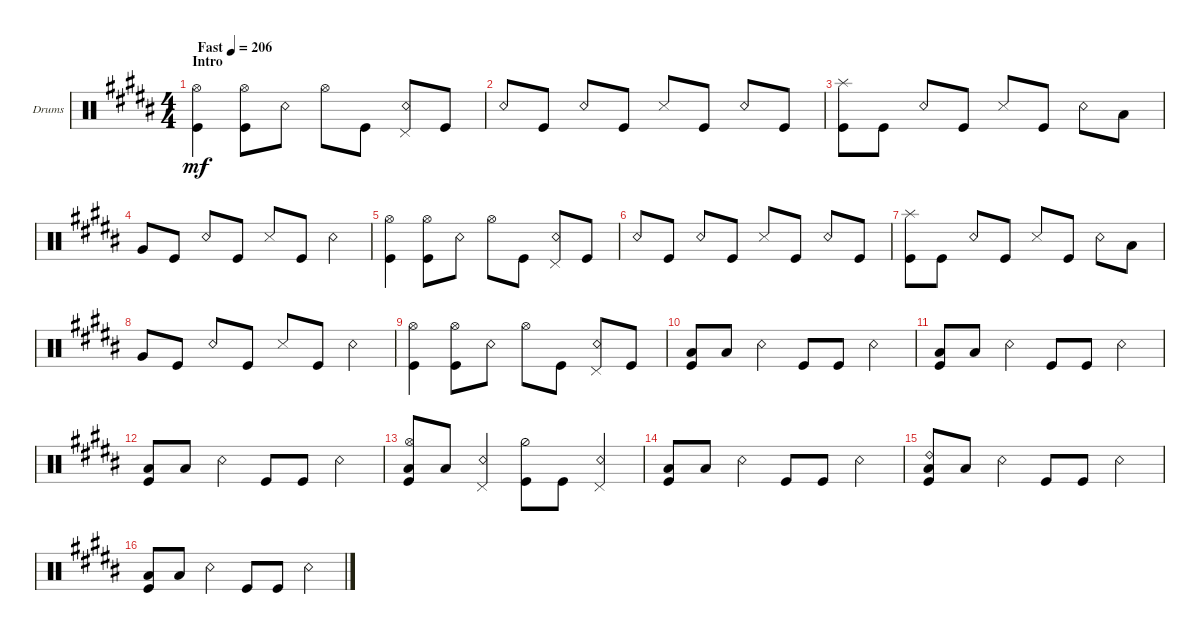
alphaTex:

\defaultSystemsLayout 4
\bracketExtendMode groupsimilarinstruments
\firstSystemTrackNameOrientation horizontal
\otherSystemsTrackNameOrientation horizontal
\track ("Drums" "Drums") {instrument percussion}
\staff {score}
\articulation defaults
\ts (4 4)
\section ("" "Intro")
\tempo (206 "Fast")
\clef neutral
\ks b
("Kick (hit)" "Hi-Hat (open)").4{dy mf} ("Kick (hit)" "Hi-Hat (open)").8 "Snare (rim shot)".8 "Hi-Hat (open)".8 "Kick (hit)".8 ("Snare (rim shot)" "Pedal Hi-Hat (hit)").8 "Kick (hit)".8 |
"Snare (rim shot)".8 "Kick (hit)".8 "Snare (rim shot)".8 "Kick (hit)".8 "Snare (side stick) 3".8 "Kick (hit)".8 "Snare (rim shot)".8 "Kick (hit)".8 |
("Kick (hit)" "Splash (hit)").8 "Kick (hit)".8 "Snare (rim shot)".8 "Kick (hit)".8 "Snare (side stick) 3".8 "Kick (hit)".8 "Snare (rim shot)".8 "Low Tom (hit)".8 |
"Very Low Tom (hit)".8 "Kick (hit)".8 "Snare (rim shot)".8 "Kick (hit)".8 "Snare (side stick) 3".8 "Kick (hit)".8 "Snare (rim shot)".4 |
("Kick (hit)" "Hi-Hat (open)").4 ("Kick (hit)" "Hi-Hat (open)").8 "Snare (rim shot)".8 "Hi-Hat (open)".8 "Kick (hit)".8 ("Snare (rim shot)" "Pedal Hi-Hat (hit)").8 "Kick (hit)".8 |
"Snare (rim shot)".8 "Kick (hit)".8 "Snare (rim shot)".8 "Kick (hit)".8 "Snare (side stick) 3".8 "Kick (hit)".8 "Snare (rim shot)".8 "Kick (hit)".8 |
("Kick (hit)" "Splash (hit)").8 "Kick (hit)".8 "Snare (rim shot)".8 "Kick (hit)".8 "Snare (side stick) 3".8 "Kick (hit)".8 "Snare (rim shot)".8 "Low Tom (hit)".8 |
"Very Low Tom (hit)".8 "Kick (hit)".8 "Snare (rim shot)".8 "Kick (hit)".8 "Snare (side stick) 3".8 "Kick (hit)".8 "Snare (rim shot)".4 |
("Kick (hit)" "Hi-Hat (open)").4 ("Kick (hit)" "Hi-Hat (open)").8 "Snare (rim shot)".8 "Hi-Hat (open)".8 "Kick (hit)".8 ("Snare (rim shot)" "Pedal Hi-Hat (hit)").8 "Kick (hit)".8 |
("Kick (hit)" "Low Tom (hit)").8 "Low Tom (hit)".8 "Snare (rim shot)".4 "Kick (hit)".8 "Kick (hit)".8 "Snare (rim shot)".4 |
("Kick (hit)" "Low Tom (hit)").8 "Low Tom (hit)".8 "Snare (rim shot)".4 "Kick (hit)".8 "Kick (hit)".8 "Snare (rim shot)".4 |
("Kick (hit)" "Low Tom (hit)").8 "Low Tom (hit)".8 "Snare (rim shot)".4 "Kick (hit)".8 "Kick (hit)".8 "Snare (rim shot)".4 |
("Kick (hit)" "Low Tom (hit)" "Hi-Hat (open)").8 "Low Tom (hit)".8 ("Snare (rim shot)" "Pedal Hi-Hat (hit)").4 ("Kick (hit)" "Hi-Hat (half)").8 "Kick (hit)".8 ("Snare (rim shot)" "Pedal Hi-Hat (hit)").4 |
("Kick (hit)" "Low Tom (hit)").8 "Low Tom (hit)".8 "Snare (rim shot)".4 "Kick (hit)".8 "Kick (hit)".8 "Snare (rim shot)".4 |
("Kick (hit)" "Low Tom (hit)" "Ride (bell) 2").8 "Low Tom (hit)".8 "Snare (rim shot)".4 "Kick (hit)".8 "Kick (hit)".8 "Snare (rim shot)".4 |
("Kick (hit)" "Low Tom (hit)").8 "Low Tom (hit)".8 "Snare (rim shot)".4 "Kick (hit)".8 "Kick (hit)".8 "Snare (rim shot)".4
